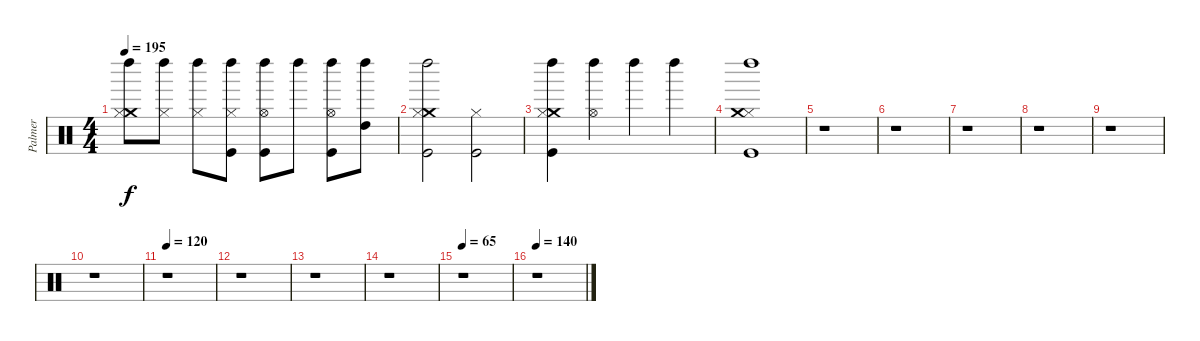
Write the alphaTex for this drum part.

\track ("Palmer" "Palmer") {instrument percussion}
\staff {score}
\articulation defaults
\ts (4 4)
\tempo 195
\clef neutral
\ks c
("Crash medium (hit)" "Hi-Hat (closed)" "Left Maraca (hit)").8{dy f} ("Hi-Hat (closed)" "Left Maraca (hit)").8 ("Hi-Hat (closed)" "Left Maraca (hit)").8 ("Kick (hit)" "Hi-Hat (closed)" "Left Maraca (hit)").8 ("Kick (hit)" "Hi-Hat (open)" "Left Maraca (hit)").8 "Left Maraca (hit)".8 ("Kick (hit)" "Hi-Hat (open)" "Left Maraca (hit)").8 ("High Tom (hit)" "Left Maraca (hit)").8 |
("Crash medium (hit)" "Kick (hit)" "Hi-Hat (closed)" "Left Maraca (hit)").2 ("Kick (hit)" "Hi-Hat (closed)").2 |
("Kick (hit)" "Crash medium (hit)" "Hi-Hat (closed)" "Left Maraca (hit)").4 ("Hi-Hat (open)" "Left Maraca (hit)").4 "Left Maraca (hit)".4 "Left Maraca (hit)".4 |
("Hi-Hat (closed)" "Kick (hit)" "Crash medium (hit)" "Left Maraca (hit)").1 |
r.1 |
r.1 |
r.1 |
r.1 |
r.1 |
r.1 |
\tempo 89
\tempo 120
r.1 |
r.1 |
r.1 |
r.1 |
\tempo 65
r.1 |
\tempo 130
\tempo 140
r.1
